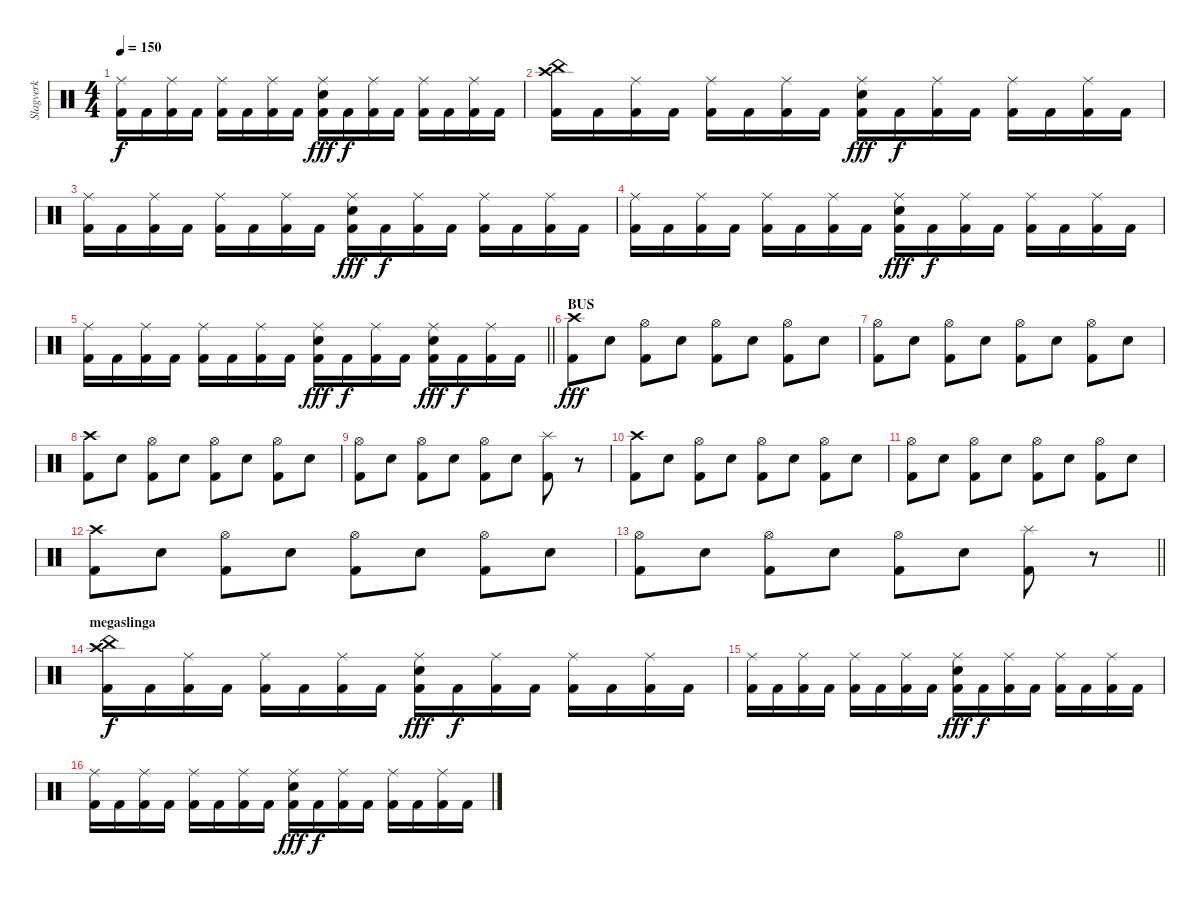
\track ("Slagverk" "Slagverk") {instrument percussion}
\staff {score}
\articulation defaults
\ts (4 4)
\tempo 150
\clef neutral
\ks c
("Ride (middle)" "Kick (hit) 2").16{dy f} "Kick (hit) 2".16 ("Ride (middle)" "Kick (hit) 2").16 "Kick (hit) 2".16 ("Ride (middle)" "Kick (hit) 2").16 "Kick (hit) 2".16 ("Ride (middle)" "Kick (hit) 2").16 "Kick (hit) 2".16 ("Ride (middle)" "Electric Snare (hit)" "Kick (hit) 2").16{dy fff} "Kick (hit) 2".16{dy f} ("Ride (middle)" "Kick (hit) 2").16 "Kick (hit) 2".16 ("Ride (middle)" "Kick (hit) 2").16 "Kick (hit) 2".16 ("Ride (middle)" "Kick (hit) 2").16 "Kick (hit) 2".16 |
("China (hit)" "Crash high (hit)" "Kick (hit) 2").16 "Kick (hit) 2".16 ("Ride (middle)" "Kick (hit) 2").16 "Kick (hit) 2".16 ("Ride (middle)" "Kick (hit) 2").16 "Kick (hit) 2".16 ("Ride (middle)" "Kick (hit) 2").16 "Kick (hit) 2".16 ("Ride (middle)" "Electric Snare (hit)" "Kick (hit) 2").16{dy fff} "Kick (hit) 2".16{dy f} ("Ride (middle)" "Kick (hit) 2").16 "Kick (hit) 2".16 ("Ride (middle)" "Kick (hit) 2").16 "Kick (hit) 2".16 ("Ride (middle)" "Kick (hit) 2").16 "Kick (hit) 2".16 |
("Ride (middle)" "Kick (hit) 2").16 "Kick (hit) 2".16 ("Ride (middle)" "Kick (hit) 2").16 "Kick (hit) 2".16 ("Ride (middle)" "Kick (hit) 2").16 "Kick (hit) 2".16 ("Ride (middle)" "Kick (hit) 2").16 "Kick (hit) 2".16 ("Ride (middle)" "Electric Snare (hit)" "Kick (hit) 2").16{dy fff} "Kick (hit) 2".16{dy f} ("Ride (middle)" "Kick (hit) 2").16 "Kick (hit) 2".16 ("Ride (middle)" "Kick (hit) 2").16 "Kick (hit) 2".16 ("Ride (middle)" "Kick (hit) 2").16 "Kick (hit) 2".16 |
("Ride (middle)" "Kick (hit) 2").16 "Kick (hit) 2".16 ("Ride (middle)" "Kick (hit) 2").16 "Kick (hit) 2".16 ("Ride (middle)" "Kick (hit) 2").16 "Kick (hit) 2".16 ("Ride (middle)" "Kick (hit) 2").16 "Kick (hit) 2".16 ("Ride (middle)" "Electric Snare (hit)" "Kick (hit) 2").16{dy fff} "Kick (hit) 2".16{dy f} ("Ride (middle)" "Kick (hit) 2").16 "Kick (hit) 2".16 ("Ride (middle)" "Kick (hit) 2").16 "Kick (hit) 2".16 ("Ride (middle)" "Kick (hit) 2").16 "Kick (hit) 2".16 |
\barLineRight lightlight
("Ride (middle)" "Kick (hit) 2").16 "Kick (hit) 2".16 ("Ride (middle)" "Kick (hit) 2").16 "Kick (hit) 2".16 ("Ride (middle)" "Kick (hit) 2").16 "Kick (hit) 2".16 ("Ride (middle)" "Kick (hit) 2").16 "Kick (hit) 2".16 ("Ride (middle)" "Electric Snare (hit)" "Kick (hit) 2").16{dy fff} "Kick (hit) 2".16{dy f} ("Ride (middle)" "Kick (hit) 2").16 "Kick (hit) 2".16 ("Ride (middle)" "Electric Snare (hit)" "Kick (hit) 2").16{dy fff} "Kick (hit) 2".16{dy f} ("Ride (middle)" "Kick (hit) 2").16 "Kick (hit) 2".16 |
\section ("" "BUS")
("Crash high (hit)" "Kick (hit) 2").8{dy fff} "Electric Snare (hit)".8 ("Hi-Hat (open)" "Kick (hit) 2").8 "Electric Snare (hit)".8 ("Hi-Hat (open)" "Kick (hit) 2").8 "Electric Snare (hit)".8 ("Hi-Hat (open)" "Kick (hit) 2").8 "Electric Snare (hit)".8 |
("Hi-Hat (open)" "Kick (hit) 2").8 "Electric Snare (hit)".8 ("Hi-Hat (open)" "Kick (hit) 2").8 "Electric Snare (hit)".8 ("Hi-Hat (open)" "Kick (hit) 2").8 "Electric Snare (hit)".8 ("Hi-Hat (open)" "Kick (hit) 2").8 "Electric Snare (hit)".8 |
("Crash high (hit)" "Kick (hit) 2").8 "Electric Snare (hit)".8 ("Hi-Hat (open)" "Kick (hit) 2").8 "Electric Snare (hit)".8 ("Hi-Hat (open)" "Kick (hit) 2").8 "Electric Snare (hit)".8 ("Hi-Hat (open)" "Kick (hit) 2").8 "Electric Snare (hit)".8 |
("Hi-Hat (open)" "Kick (hit) 2").8 "Electric Snare (hit)".8 ("Hi-Hat (open)" "Kick (hit) 2").8 "Electric Snare (hit)".8 ("Hi-Hat (open)" "Kick (hit) 2").8 "Electric Snare (hit)".8 ("Splash (hit)" "Kick (hit) 2").8 r.8 |
("Crash high (hit)" "Kick (hit) 2").8 "Electric Snare (hit)".8 ("Hi-Hat (open)" "Kick (hit) 2").8 "Electric Snare (hit)".8 ("Hi-Hat (open)" "Kick (hit) 2").8 "Electric Snare (hit)".8 ("Hi-Hat (open)" "Kick (hit) 2").8 "Electric Snare (hit)".8 |
("Hi-Hat (open)" "Kick (hit) 2").8 "Electric Snare (hit)".8 ("Hi-Hat (open)" "Kick (hit) 2").8 "Electric Snare (hit)".8 ("Hi-Hat (open)" "Kick (hit) 2").8 "Electric Snare (hit)".8 ("Hi-Hat (open)" "Kick (hit) 2").8 "Electric Snare (hit)".8 |
("Crash high (hit)" "Kick (hit) 2").8 "Electric Snare (hit)".8 ("Hi-Hat (open)" "Kick (hit) 2").8 "Electric Snare (hit)".8 ("Hi-Hat (open)" "Kick (hit) 2").8 "Electric Snare (hit)".8 ("Hi-Hat (open)" "Kick (hit) 2").8 "Electric Snare (hit)".8 |
\barLineRight lightlight
("Hi-Hat (open)" "Kick (hit) 2").8 "Electric Snare (hit)".8 ("Hi-Hat (open)" "Kick (hit) 2").8 "Electric Snare (hit)".8 ("Hi-Hat (open)" "Kick (hit) 2").8 "Electric Snare (hit)".8 ("Splash (hit)" "Kick (hit) 2").8 r.8 |
\section ("" "megaslinga")
("China (hit)" "Crash high (hit)" "Kick (hit) 2").16{dy f} "Kick (hit) 2".16 ("Ride (middle)" "Kick (hit) 2").16 "Kick (hit) 2".16 ("Ride (middle)" "Kick (hit) 2").16 "Kick (hit) 2".16 ("Ride (middle)" "Kick (hit) 2").16 "Kick (hit) 2".16 ("Ride (middle)" "Electric Snare (hit)" "Kick (hit) 2").16{dy fff} "Kick (hit) 2".16{dy f} ("Ride (middle)" "Kick (hit) 2").16 "Kick (hit) 2".16 ("Ride (middle)" "Kick (hit) 2").16 "Kick (hit) 2".16 ("Ride (middle)" "Kick (hit) 2").16 "Kick (hit) 2".16 |
("Ride (middle)" "Kick (hit) 2").16 "Kick (hit) 2".16 ("Ride (middle)" "Kick (hit) 2").16 "Kick (hit) 2".16 ("Ride (middle)" "Kick (hit) 2").16 "Kick (hit) 2".16 ("Ride (middle)" "Kick (hit) 2").16 "Kick (hit) 2".16 ("Ride (middle)" "Electric Snare (hit)" "Kick (hit) 2").16{dy fff} "Kick (hit) 2".16{dy f} ("Ride (middle)" "Kick (hit) 2").16 "Kick (hit) 2".16 ("Ride (middle)" "Kick (hit) 2").16 "Kick (hit) 2".16 ("Ride (middle)" "Kick (hit) 2").16 "Kick (hit) 2".16 |
("Ride (middle)" "Kick (hit) 2").16 "Kick (hit) 2".16 ("Ride (middle)" "Kick (hit) 2").16 "Kick (hit) 2".16 ("Ride (middle)" "Kick (hit) 2").16 "Kick (hit) 2".16 ("Ride (middle)" "Kick (hit) 2").16 "Kick (hit) 2".16 ("Ride (middle)" "Electric Snare (hit)" "Kick (hit) 2").16{dy fff} "Kick (hit) 2".16{dy f} ("Ride (middle)" "Kick (hit) 2").16 "Kick (hit) 2".16 ("Ride (middle)" "Kick (hit) 2").16 "Kick (hit) 2".16 ("Ride (middle)" "Kick (hit) 2").16 "Kick (hit) 2".16
